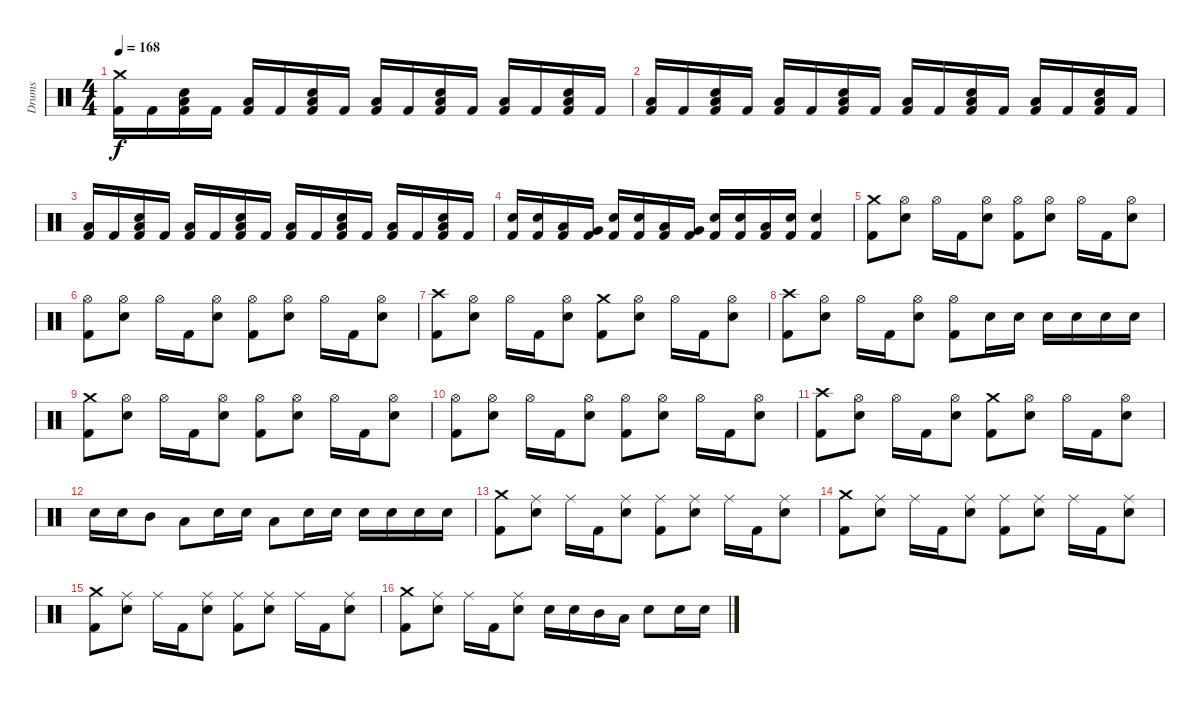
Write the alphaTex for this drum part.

\track ("Drums" "Drums") {instrument percussion}
\staff {score}
\articulation defaults
\ts (4 4)
\tempo 168
\clef neutral
\ks c
("Crash medium (hit)" "Kick (hit) 2").16{dy f} "Kick (hit) 2".16 ("Low Floor Tom (hit)" "Electric Snare (hit)" "Kick (hit) 2").16 "Kick (hit) 2".16 ("Low Floor Tom (hit)" "Kick (hit) 2").16 "Kick (hit) 2".16 ("Low Floor Tom (hit)" "Electric Snare (hit)" "Kick (hit) 2").16 "Kick (hit) 2".16 ("Low Floor Tom (hit)" "Kick (hit) 2").16 "Kick (hit) 2".16 ("Low Floor Tom (hit)" "Electric Snare (hit)" "Kick (hit) 2").16 "Kick (hit) 2".16 ("Low Floor Tom (hit)" "Kick (hit) 2").16 "Kick (hit) 2".16 ("Low Floor Tom (hit)" "Electric Snare (hit)" "Kick (hit) 2").16 "Kick (hit) 2".16 |
("Low Floor Tom (hit)" "Kick (hit) 2").16 "Kick (hit) 2".16 ("Low Floor Tom (hit)" "Electric Snare (hit)" "Kick (hit) 2").16 "Kick (hit) 2".16 ("Low Floor Tom (hit)" "Kick (hit) 2").16 "Kick (hit) 2".16 ("Low Floor Tom (hit)" "Electric Snare (hit)" "Kick (hit) 2").16 "Kick (hit) 2".16 ("Low Floor Tom (hit)" "Kick (hit) 2").16 "Kick (hit) 2".16 ("Low Floor Tom (hit)" "Electric Snare (hit)" "Kick (hit) 2").16 "Kick (hit) 2".16 ("Low Floor Tom (hit)" "Kick (hit) 2").16 "Kick (hit) 2".16 ("Low Floor Tom (hit)" "Electric Snare (hit)" "Kick (hit) 2").16 "Kick (hit) 2".16 |
("Low Floor Tom (hit)" "Kick (hit) 2").16 "Kick (hit) 2".16 ("Low Floor Tom (hit)" "Electric Snare (hit)" "Kick (hit) 2").16 "Kick (hit) 2".16 ("Low Floor Tom (hit)" "Kick (hit) 2").16 "Kick (hit) 2".16 ("Low Floor Tom (hit)" "Electric Snare (hit)" "Kick (hit) 2").16 "Kick (hit) 2".16 ("Low Floor Tom (hit)" "Kick (hit) 2").16 "Kick (hit) 2".16 ("Low Floor Tom (hit)" "Electric Snare (hit)" "Kick (hit) 2").16 "Kick (hit) 2".16 ("Low Floor Tom (hit)" "Kick (hit) 2").16 "Kick (hit) 2".16 ("Low Floor Tom (hit)" "Electric Snare (hit)" "Kick (hit) 2").16 "Kick (hit) 2".16 |
("Electric Snare (hit)" "Kick (hit) 2").16 ("Electric Snare (hit)" "Kick (hit) 2").16 ("Low Tom (hit)" "Kick (hit) 2").16 ("Very Low Tom (hit)" "Kick (hit) 2").16 ("Electric Snare (hit)" "Kick (hit) 2").16 ("Electric Snare (hit)" "Kick (hit) 2").16 ("Low Tom (hit)" "Kick (hit) 2").16 ("Very Low Tom (hit)" "Kick (hit) 2").16 ("Electric Snare (hit)" "Kick (hit) 2").16 ("Electric Snare (hit)" "Kick (hit) 2").16 ("Low Tom (hit)" "Kick (hit) 2").16 ("Electric Snare (hit)" "Kick (hit) 2").16 ("Electric Snare (hit)" "Kick (hit) 2").4 |
("Crash medium (hit)" "Kick (hit) 2").8 ("Hi-Hat (open)" "Electric Snare (hit)").8 "Hi-Hat (open)".16 "Kick (hit) 2".16 ("Hi-Hat (open)" "Electric Snare (hit)").8 ("Hi-Hat (open)" "Kick (hit) 2").8 ("Hi-Hat (open)" "Electric Snare (hit)").8 "Hi-Hat (open)".16 "Kick (hit) 2".16 ("Hi-Hat (open)" "Electric Snare (hit)").8 |
("Hi-Hat (open)" "Kick (hit) 2").8 ("Hi-Hat (open)" "Electric Snare (hit)").8 "Hi-Hat (open)".16 "Kick (hit) 2".16 ("Hi-Hat (open)" "Electric Snare (hit)").8 ("Hi-Hat (open)" "Kick (hit) 2").8 ("Hi-Hat (open)" "Electric Snare (hit)").8 "Hi-Hat (open)".16 "Kick (hit) 2".16 ("Hi-Hat (open)" "Electric Snare (hit)").8 |
("Crash high (hit)" "Kick (hit) 2").8 ("Hi-Hat (open)" "Electric Snare (hit)").8 "Hi-Hat (open)".16 "Kick (hit) 2".16 ("Hi-Hat (open)" "Electric Snare (hit)").8 ("Crash medium (hit)" "Kick (hit) 2").8 ("Hi-Hat (open)" "Electric Snare (hit)").8 "Hi-Hat (open)".16 "Kick (hit) 2".16 ("Hi-Hat (open)" "Electric Snare (hit)").8 |
("Crash high (hit)" "Kick (hit) 2").8 ("Hi-Hat (open)" "Electric Snare (hit)").8 "Hi-Hat (open)".16 "Kick (hit) 2".16 ("Hi-Hat (open)" "Electric Snare (hit)").8 ("Hi-Hat (open)" "Kick (hit) 2").8 "Electric Snare (hit)".16 "Electric Snare (hit)".16 "Electric Snare (hit)".16 "Electric Snare (hit)".16 "Electric Snare (hit)".16 "Electric Snare (hit)".16 |
("Crash medium (hit)" "Kick (hit) 2").8 ("Hi-Hat (open)" "Electric Snare (hit)").8 "Hi-Hat (open)".16 "Kick (hit) 2".16 ("Hi-Hat (open)" "Electric Snare (hit)").8 ("Hi-Hat (open)" "Kick (hit) 2").8 ("Hi-Hat (open)" "Electric Snare (hit)").8 "Hi-Hat (open)".16 "Kick (hit) 2".16 ("Hi-Hat (open)" "Electric Snare (hit)").8 |
("Hi-Hat (open)" "Kick (hit) 2").8 ("Hi-Hat (open)" "Electric Snare (hit)").8 "Hi-Hat (open)".16 "Kick (hit) 2".16 ("Hi-Hat (open)" "Electric Snare (hit)").8 ("Hi-Hat (open)" "Kick (hit) 2").8 ("Hi-Hat (open)" "Electric Snare (hit)").8 "Hi-Hat (open)".16 "Kick (hit) 2".16 ("Hi-Hat (open)" "Electric Snare (hit)").8 |
("Crash high (hit)" "Kick (hit) 2").8 ("Hi-Hat (open)" "Electric Snare (hit)").8 "Hi-Hat (open)".16 "Kick (hit) 2".16 ("Hi-Hat (open)" "Electric Snare (hit)").8 ("Crash medium (hit)" "Kick (hit) 2").8 ("Hi-Hat (open)" "Electric Snare (hit)").8 "Hi-Hat (open)".16 "Kick (hit) 2".16 ("Hi-Hat (open)" "Electric Snare (hit)").8 |
"Electric Snare (hit)".16 "Electric Snare (hit)".16 "Mid Tom (hit)".8 "Low Tom (hit)".8 "Electric Snare (hit)".16 "Electric Snare (hit)".16 "Low Tom (hit)".8 "Electric Snare (hit)".16 "Electric Snare (hit)".16 "Electric Snare (hit)".16 "Electric Snare (hit)".16 "Electric Snare (hit)".16 "Electric Snare (hit)".16 |
("Crash medium (hit)" "Kick (hit) 2").8 ("Ride (middle)" "Electric Snare (hit)").8 "Ride (middle)".16 "Kick (hit) 2".16 ("Ride (middle)" "Electric Snare (hit)").8 ("Ride (middle)" "Kick (hit) 2").8 ("Ride (middle)" "Electric Snare (hit)").8 "Ride (middle)".16 "Kick (hit) 2".16 ("Ride (middle)" "Electric Snare (hit)").8 |
("Crash medium (hit)" "Kick (hit) 2").8 ("Ride (middle)" "Electric Snare (hit)").8 "Ride (middle)".16 "Kick (hit) 2".16 ("Ride (middle)" "Electric Snare (hit)").8 ("Ride (middle)" "Kick (hit) 2").8 ("Ride (middle)" "Electric Snare (hit)").8 "Ride (middle)".16 "Kick (hit) 2".16 ("Ride (middle)" "Electric Snare (hit)").8 |
("Crash medium (hit)" "Kick (hit) 2").8 ("Ride (middle)" "Electric Snare (hit)").8 "Ride (middle)".16 "Kick (hit) 2".16 ("Ride (middle)" "Electric Snare (hit)").8 ("Ride (middle)" "Kick (hit) 2").8 ("Ride (middle)" "Electric Snare (hit)").8 "Ride (middle)".16 "Kick (hit) 2".16 ("Ride (middle)" "Electric Snare (hit)").8 |
("Crash medium (hit)" "Kick (hit) 2").8 ("Ride (middle)" "Electric Snare (hit)").8 "Ride (middle)".16 "Kick (hit) 2".16 ("Ride (middle)" "Electric Snare (hit)").8 "Electric Snare (hit)".16 "Electric Snare (hit)".16 "Mid Tom (hit)".16 "Low Tom (hit)".16 "Electric Snare (hit)".8 "Electric Snare (hit)".16 "Electric Snare (hit)".16
